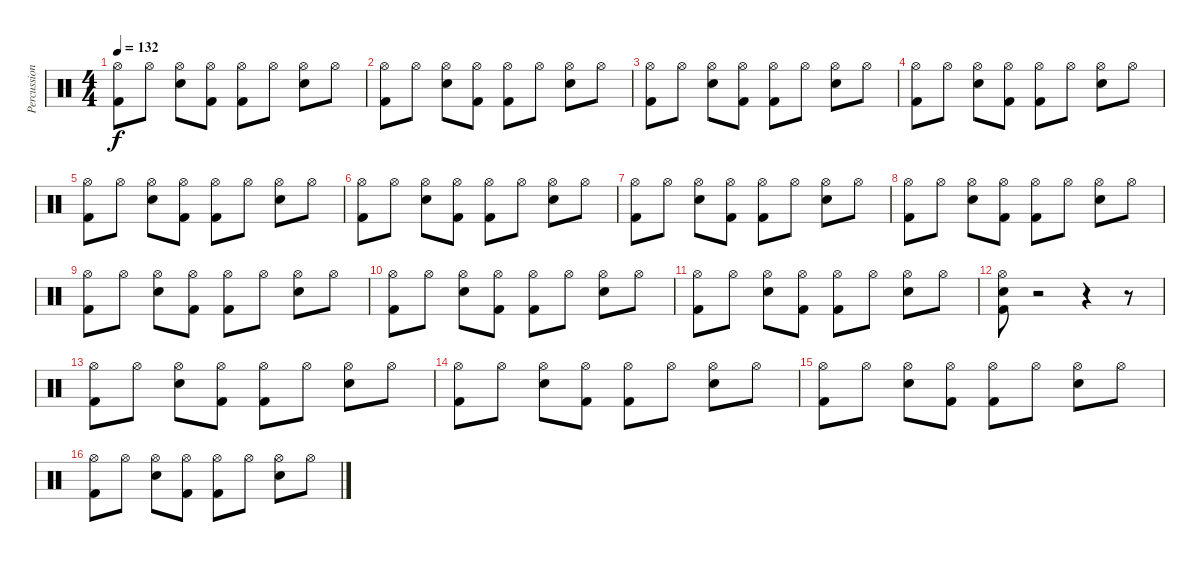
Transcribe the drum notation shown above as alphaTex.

\track ("Percussions" "Percussion") {instrument percussion}
\staff {score}
\articulation defaults
\ts (4 4)
\tempo 132
\clef neutral
\ks c
("Hi-Hat (open)" "Kick (hit) 2").8{dy f} "Hi-Hat (open)".8 ("Hi-Hat (open)" "Snare (hit) 2").8 ("Hi-Hat (open)" "Kick (hit) 2").8 ("Hi-Hat (open)" "Kick (hit) 2").8 "Hi-Hat (open)".8 ("Hi-Hat (open)" "Snare (hit) 2").8 "Hi-Hat (open)".8 |
("Hi-Hat (open)" "Kick (hit) 2").8 "Hi-Hat (open)".8 ("Hi-Hat (open)" "Snare (hit) 2").8 ("Hi-Hat (open)" "Kick (hit) 2").8 ("Hi-Hat (open)" "Kick (hit) 2").8 "Hi-Hat (open)".8 ("Hi-Hat (open)" "Snare (hit) 2").8 "Hi-Hat (open)".8 |
("Hi-Hat (open)" "Kick (hit) 2").8 "Hi-Hat (open)".8 ("Hi-Hat (open)" "Snare (hit) 2").8 ("Hi-Hat (open)" "Kick (hit) 2").8 ("Hi-Hat (open)" "Kick (hit) 2").8 "Hi-Hat (open)".8 ("Hi-Hat (open)" "Snare (hit) 2").8 "Hi-Hat (open)".8 |
("Hi-Hat (open)" "Kick (hit) 2").8 "Hi-Hat (open)".8 ("Hi-Hat (open)" "Snare (hit) 2").8 ("Hi-Hat (open)" "Kick (hit) 2").8 ("Hi-Hat (open)" "Kick (hit) 2").8 "Hi-Hat (open)".8 ("Hi-Hat (open)" "Snare (hit) 2").8 "Hi-Hat (open)".8 |
("Hi-Hat (open)" "Kick (hit) 2").8 "Hi-Hat (open)".8 ("Hi-Hat (open)" "Snare (hit) 2").8 ("Hi-Hat (open)" "Kick (hit) 2").8 ("Hi-Hat (open)" "Kick (hit) 2").8 "Hi-Hat (open)".8 ("Hi-Hat (open)" "Snare (hit) 2").8 "Hi-Hat (open)".8 |
("Hi-Hat (open)" "Kick (hit) 2").8 "Hi-Hat (open)".8 ("Hi-Hat (open)" "Snare (hit) 2").8 ("Hi-Hat (open)" "Kick (hit) 2").8 ("Hi-Hat (open)" "Kick (hit) 2").8 "Hi-Hat (open)".8 ("Hi-Hat (open)" "Snare (hit) 2").8 "Hi-Hat (open)".8 |
("Hi-Hat (open)" "Kick (hit) 2").8 "Hi-Hat (open)".8 ("Hi-Hat (open)" "Snare (hit) 2").8 ("Hi-Hat (open)" "Kick (hit) 2").8 ("Hi-Hat (open)" "Kick (hit) 2").8 "Hi-Hat (open)".8 ("Hi-Hat (open)" "Snare (hit) 2").8 "Hi-Hat (open)".8 |
("Hi-Hat (open)" "Kick (hit) 2").8 "Hi-Hat (open)".8 ("Hi-Hat (open)" "Snare (hit) 2").8 ("Hi-Hat (open)" "Kick (hit) 2").8 ("Hi-Hat (open)" "Kick (hit) 2").8 "Hi-Hat (open)".8 ("Hi-Hat (open)" "Snare (hit) 2").8 "Hi-Hat (open)".8 |
("Hi-Hat (open)" "Kick (hit) 2").8 "Hi-Hat (open)".8 ("Hi-Hat (open)" "Snare (hit) 2").8 ("Hi-Hat (open)" "Kick (hit) 2").8 ("Hi-Hat (open)" "Kick (hit) 2").8 "Hi-Hat (open)".8 ("Hi-Hat (open)" "Snare (hit) 2").8 "Hi-Hat (open)".8 |
("Hi-Hat (open)" "Kick (hit) 2").8 "Hi-Hat (open)".8 ("Hi-Hat (open)" "Snare (hit) 2").8 ("Hi-Hat (open)" "Kick (hit) 2").8 ("Hi-Hat (open)" "Kick (hit) 2").8 "Hi-Hat (open)".8 ("Hi-Hat (open)" "Snare (hit) 2").8 "Hi-Hat (open)".8 |
("Hi-Hat (open)" "Kick (hit) 2").8 "Hi-Hat (open)".8 ("Hi-Hat (open)" "Snare (hit) 2").8 ("Hi-Hat (open)" "Kick (hit) 2").8 ("Hi-Hat (open)" "Kick (hit) 2").8 "Hi-Hat (open)".8 ("Hi-Hat (open)" "Snare (hit) 2").8 "Hi-Hat (open)".8 |
("Hi-Hat (open)" "Snare (hit) 2" "Kick (hit) 2").8 r.2 r.4 r.8 |
("Hi-Hat (open)" "Kick (hit) 2").8 "Hi-Hat (open)".8 ("Hi-Hat (open)" "Snare (hit) 2").8 ("Hi-Hat (open)" "Kick (hit) 2").8 ("Hi-Hat (open)" "Kick (hit) 2").8 "Hi-Hat (open)".8 ("Hi-Hat (open)" "Snare (hit) 2").8 "Hi-Hat (open)".8 |
("Hi-Hat (open)" "Kick (hit) 2").8 "Hi-Hat (open)".8 ("Hi-Hat (open)" "Snare (hit) 2").8 ("Hi-Hat (open)" "Kick (hit) 2").8 ("Hi-Hat (open)" "Kick (hit) 2").8 "Hi-Hat (open)".8 ("Hi-Hat (open)" "Snare (hit) 2").8 "Hi-Hat (open)".8 |
("Hi-Hat (open)" "Kick (hit) 2").8 "Hi-Hat (open)".8 ("Hi-Hat (open)" "Snare (hit) 2").8 ("Hi-Hat (open)" "Kick (hit) 2").8 ("Hi-Hat (open)" "Kick (hit) 2").8 "Hi-Hat (open)".8 ("Hi-Hat (open)" "Snare (hit) 2").8 "Hi-Hat (open)".8 |
("Hi-Hat (open)" "Kick (hit) 2").8 "Hi-Hat (open)".8 ("Hi-Hat (open)" "Snare (hit) 2").8 ("Hi-Hat (open)" "Kick (hit) 2").8 ("Hi-Hat (open)" "Kick (hit) 2").8 "Hi-Hat (open)".8 ("Hi-Hat (open)" "Snare (hit) 2").8 "Hi-Hat (open)".8
